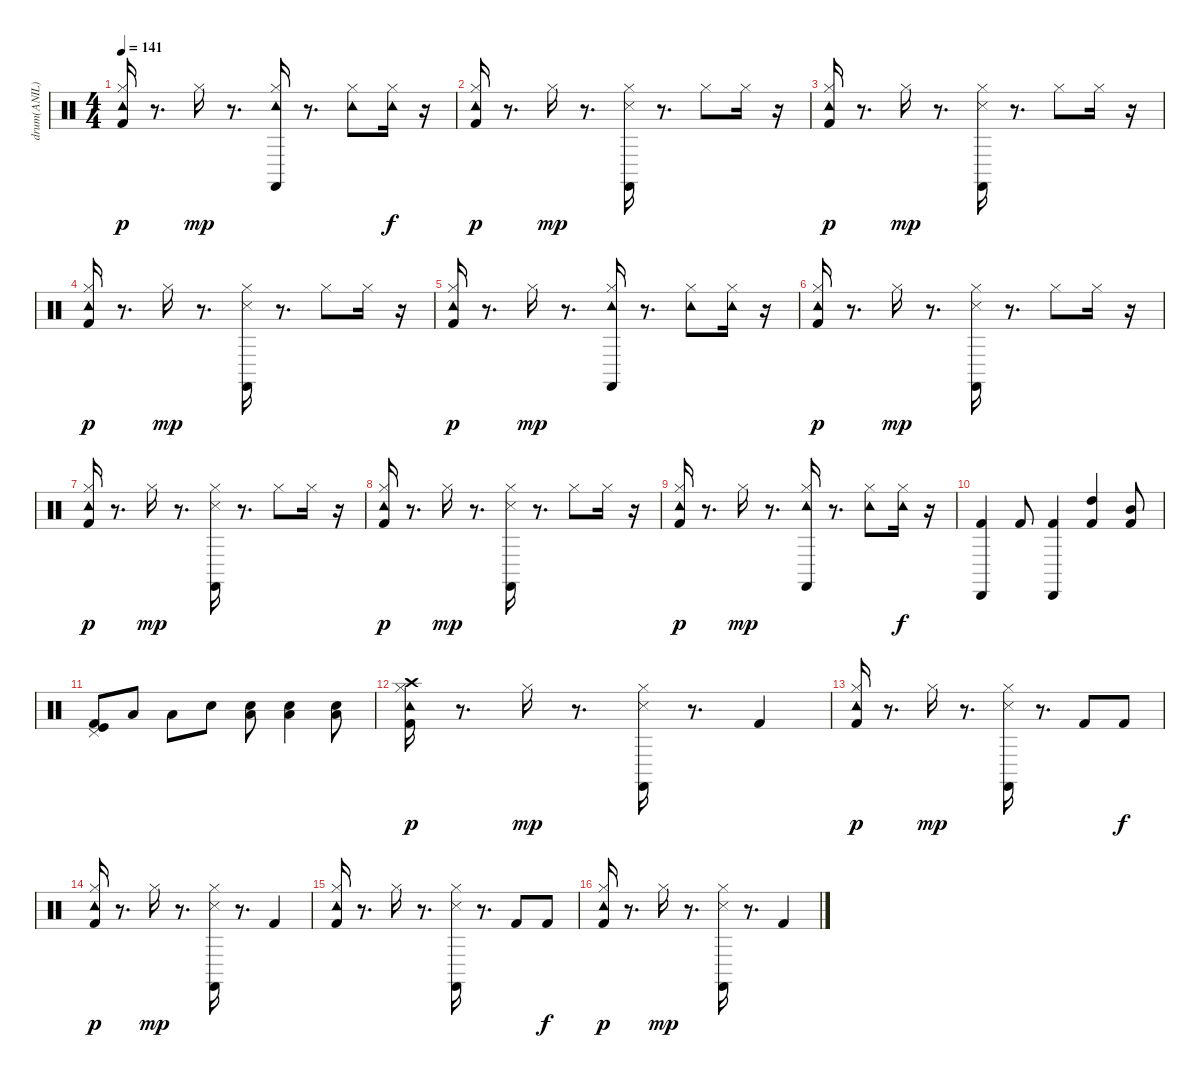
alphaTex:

\track ("drum(ANIL)" "drum(ANIL)") {instrument percussion}
\staff {score}
\articulation defaults
\ts (4 4)
\tempo 141
\clef neutral
\ks c
("Kick (hit) 2" "Hi-Hat (closed)" "Tambourine (hit)").16{dy p} r.8{d} "Hi-Hat (closed)".16{dy mp} r.8{d} ("Castanets (hit)" "Tambourine (hit)" "Hi-Hat (closed)").16 r.8{d} ("Hi-Hat (closed)" "Tambourine (hit)").8 ("Hi-Hat (closed)" "Tambourine (hit)").16{dy f} r.16 |
("Kick (hit) 2" "Hi-Hat (closed)" "Tambourine (hit)").16{dy p} r.8{d} "Hi-Hat (closed)".16{dy mp} r.8{d} ("Castanets (hit)" "Snare (side stick) 3" "Hi-Hat (closed)").16 r.8{d} "Hi-Hat (closed)".8 "Hi-Hat (closed)".16 r.16 |
("Kick (hit) 2" "Hi-Hat (closed)" "Tambourine (hit)").16{dy p} r.8{d} "Hi-Hat (closed)".16{dy mp} r.8{d} ("Castanets (hit)" "Snare (side stick) 3" "Hi-Hat (closed)").16 r.8{d} "Hi-Hat (closed)".8 "Hi-Hat (closed)".16 r.16 |
("Kick (hit) 2" "Hi-Hat (closed)" "Tambourine (hit)").16{dy p} r.8{d} "Hi-Hat (closed)".16{dy mp} r.8{d} ("Castanets (hit)" "Snare (side stick) 3" "Hi-Hat (closed)").16 r.8{d} "Hi-Hat (closed)".8 "Hi-Hat (closed)".16 r.16 |
("Kick (hit) 2" "Hi-Hat (closed)" "Tambourine (hit)").16{dy p} r.8{d} "Hi-Hat (closed)".16{dy mp} r.8{d} ("Castanets (hit)" "Tambourine (hit)" "Hi-Hat (closed)").16 r.8{d} ("Hi-Hat (closed)" "Tambourine (hit)").8 ("Hi-Hat (closed)" "Tambourine (hit)").16 r.16 |
("Kick (hit) 2" "Hi-Hat (closed)" "Tambourine (hit)").16{dy p} r.8{d} "Hi-Hat (closed)".16{dy mp} r.8{d} ("Castanets (hit)" "Snare (side stick) 3" "Hi-Hat (closed)").16 r.8{d} "Hi-Hat (closed)".8 "Hi-Hat (closed)".16 r.16 |
("Kick (hit) 2" "Hi-Hat (closed)" "Tambourine (hit)").16{dy p} r.8{d} "Hi-Hat (closed)".16{dy mp} r.8{d} ("Castanets (hit)" "Snare (side stick) 3" "Hi-Hat (closed)").16 r.8{d} "Hi-Hat (closed)".8 "Hi-Hat (closed)".16 r.16 |
("Kick (hit) 2" "Hi-Hat (closed)" "Tambourine (hit)").16{dy p} r.8{d} "Hi-Hat (closed)".16{dy mp} r.8{d} ("Castanets (hit)" "Snare (side stick) 3" "Hi-Hat (closed)").16 r.8{d} "Hi-Hat (closed)".8 "Hi-Hat (closed)".16 r.16 |
("Kick (hit) 2" "Hi-Hat (closed)" "Tambourine (hit)").16{dy p} r.8{d} "Hi-Hat (closed)".16{dy mp} r.8{d} ("Castanets (hit)" "Tambourine (hit)" "Hi-Hat (closed)").16 r.8{d} ("Hi-Hat (closed)" "Tambourine (hit)").8 ("Hi-Hat (closed)" "Tambourine (hit)").16{dy f} r.16 |
("Cabasa (hit)" "Kick (hit) 2").4 "Kick (hit) 2".8 ("Kick (hit) 2" "Cabasa (hit)").4 ("High Tom (hit)" "Kick (hit) 2").4 ("Mid Tom (hit)" "Kick (hit) 2").8 |
("Pedal Hi-Hat (hit)" "Kick (hit)" "Kick (hit) 2").8 "Low Tom (hit)".8 "Low Floor Tom (hit)".8 "Snare (hit) 2".8 ("Low Tom (hit)" "Snare (hit) 2").8 ("Low Floor Tom (hit)" "Snare (hit) 2").4 ("Low Floor Tom (hit)" "Snare (hit) 2").8 |
("Kick (hit) 2" "Hi-Hat (closed)" "Tambourine (hit)" "Crash high (hit)").16{dy p} r.8{d} "Hi-Hat (closed)".16{dy mp} r.8{d} ("Castanets (hit)" "Snare (side stick) 3" "Hi-Hat (closed)").16 r.8{d} "Kick (hit) 2".4 |
("Kick (hit) 2" "Hi-Hat (closed)" "Tambourine (hit)").16{dy p} r.8{d} "Hi-Hat (closed)".16{dy mp} r.8{d} ("Castanets (hit)" "Snare (side stick) 3" "Hi-Hat (closed)").16 r.8{d} "Kick (hit) 2".8 "Kick (hit) 2".8{dy f} |
("Kick (hit) 2" "Hi-Hat (closed)" "Tambourine (hit)").16{dy p} r.8{d} "Hi-Hat (closed)".16{dy mp} r.8{d} ("Castanets (hit)" "Snare (side stick) 3" "Hi-Hat (closed)").16 r.8{d} "Kick (hit) 2".4 |
("Kick (hit) 2" "Hi-Hat (closed)" "Tambourine (hit)").16 r.8{d} "Hi-Hat (closed)".16 r.8{d} ("Castanets (hit)" "Snare (side stick) 3" "Hi-Hat (closed)").16 r.8{d} "Kick (hit) 2".8 "Kick (hit) 2".8{dy f} |
("Kick (hit) 2" "Hi-Hat (closed)" "Tambourine (hit)").16{dy p} r.8{d} "Hi-Hat (closed)".16{dy mp} r.8{d} ("Castanets (hit)" "Snare (side stick) 3" "Hi-Hat (closed)").16 r.8{d} "Kick (hit) 2".4
